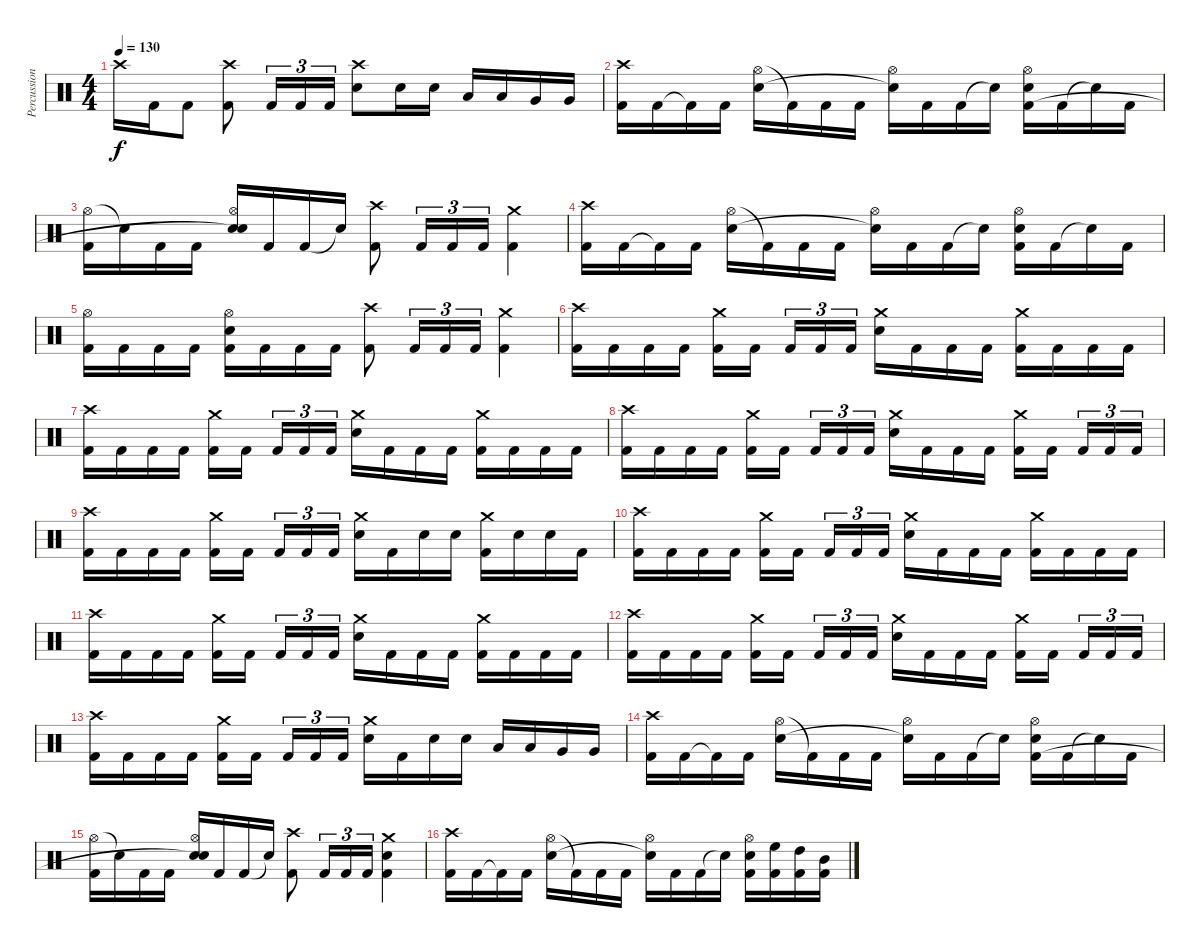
\track ("Percussion" "Percussion") {instrument percussion}
\staff {score}
\articulation defaults
\ts (4 4)
\tempo 130
\clef neutral
\ks c "Crash high (hit)".16{dy f} "Kick (hit) 2".16 "Kick (hit) 2".8
("Crash high (hit)" "Kick (hit) 2").8 "Kick (hit) 2".16{tu (3 2)} "Kick (hit) 2".16{tu (3 2)} "Kick (hit) 2".16{tu (3 2)} ("Crash high (hit)" "Electric Snare (hit)").8 "Electric Snare (hit)".16 "Electric Snare (hit)".16 "Low Tom (hit)".16 "Low Tom (hit)".16 "Very Low Tom (hit)".16 "Very Low Tom (hit)".16 |
("Crash high (hit)" "Kick (hit) 2").16 "Kick (hit) 2".16 "Kick (hit) 2"{t}.16 "Kick (hit) 2".16 ("Hi-Hat (open)" "Electric Snare (hit)").16 "Kick (hit) 2"{t}.16 "Kick (hit) 2".16 "Kick (hit) 2".16 ("Hi-Hat (open)" "Snare (hit)"{t}).16 "Kick (hit) 2".16 "Kick (hit) 2".16 "Snare (hit)"{t}.16 ("Hi-Hat (open)" "Electric Snare (hit)" "Kick (hit) 2").16 "Kick (hit) 2".16 "Snare (hit)"{t}.16 "Kick (hit) 2".16 |
("Hi-Hat (open)" "Kick (hit) 2").16 "Snare (hit)"{t}.16 "Kick (hit) 2".16 "Kick (hit) 2".16 ("Hi-Hat (open)" "Electric Snare (hit)" "Snare (hit)"{t}).16 "Kick (hit) 2".16 "Kick (hit) 2".16 "Snare (hit)"{t}.16 ("Crash high (hit)" "Kick (hit) 2").8 "Kick (hit) 2".16{tu (3 2)} "Kick (hit) 2".16{tu (3 2)} "Kick (hit) 2".16{tu (3 2)} ("Crash medium (hit)" "Kick (hit) 2").4 |
("Crash high (hit)" "Kick (hit) 2").16 "Kick (hit) 2".16 "Kick (hit) 2"{t}.16 "Kick (hit) 2".16 ("Hi-Hat (open)" "Electric Snare (hit)").16 "Kick (hit) 2"{t}.16 "Kick (hit) 2".16 "Kick (hit) 2".16 ("Hi-Hat (open)" "Snare (hit)"{t}).16 "Kick (hit) 2".16 "Kick (hit) 2".16 "Snare (hit)"{t}.16 ("Hi-Hat (open)" "Electric Snare (hit)" "Kick (hit) 2").16 "Kick (hit) 2".16 "Snare (hit)"{t}.16 "Kick (hit) 2".16 |
("Hi-Hat (open)" "Kick (hit) 2").16 "Kick (hit) 2".16 "Kick (hit) 2".16 "Kick (hit) 2".16 ("Hi-Hat (open)" "Electric Snare (hit)" "Kick (hit) 2").16 "Kick (hit) 2".16 "Kick (hit) 2".16 "Kick (hit) 2".16 ("Crash high (hit)" "Kick (hit) 2").8 "Kick (hit) 2".16{tu (3 2)} "Kick (hit) 2".16{tu (3 2)} "Kick (hit) 2".16{tu (3 2)} ("Crash medium (hit)" "Kick (hit) 2").4 |
("Crash high (hit)" "Kick (hit) 2").16 "Kick (hit) 2".16 "Kick (hit) 2".16 "Kick (hit) 2".16 ("Crash medium (hit)" "Kick (hit) 2").16 "Kick (hit) 2".16{beam splitsecondary} "Kick (hit) 2".16{tu (3 2)} "Kick (hit) 2".16{tu (3 2)} "Kick (hit) 2".16{tu (3 2)} ("Crash medium (hit)" "Electric Snare (hit)").16 "Kick (hit) 2".16 "Kick (hit) 2".16 "Kick (hit) 2".16 ("Crash medium (hit)" "Kick (hit) 2").16 "Kick (hit) 2".16 "Kick (hit) 2".16 "Kick (hit) 2".16 |
("Crash high (hit)" "Kick (hit) 2").16 "Kick (hit) 2".16 "Kick (hit) 2".16 "Kick (hit) 2".16 ("Crash medium (hit)" "Kick (hit) 2").16 "Kick (hit) 2".16{beam splitsecondary} "Kick (hit) 2".16{tu (3 2)} "Kick (hit) 2".16{tu (3 2)} "Kick (hit) 2".16{tu (3 2)} ("Crash medium (hit)" "Electric Snare (hit)").16 "Kick (hit) 2".16 "Kick (hit) 2".16 "Kick (hit) 2".16 ("Crash medium (hit)" "Kick (hit) 2").16 "Kick (hit) 2".16 "Kick (hit) 2".16 "Kick (hit) 2".16 |
("Crash high (hit)" "Kick (hit) 2").16 "Kick (hit) 2".16 "Kick (hit) 2".16 "Kick (hit) 2".16 ("Crash medium (hit)" "Kick (hit) 2").16 "Kick (hit) 2".16{beam splitsecondary} "Kick (hit) 2".16{tu (3 2)} "Kick (hit) 2".16{tu (3 2)} "Kick (hit) 2".16{tu (3 2)} ("Crash medium (hit)" "Electric Snare (hit)").16 "Kick (hit) 2".16 "Kick (hit) 2".16 "Kick (hit) 2".16 ("Crash medium (hit)" "Kick (hit) 2").16 "Kick (hit) 2".16{beam splitsecondary} "Kick (hit) 2".16{tu (3 2)} "Kick (hit) 2".16{tu (3 2)} "Kick (hit) 2".16{tu (3 2)} |
("Crash high (hit)" "Kick (hit) 2").16 "Kick (hit) 2".16 "Kick (hit) 2".16 "Kick (hit) 2".16 ("Crash medium (hit)" "Kick (hit) 2").16 "Kick (hit) 2".16{beam splitsecondary} "Kick (hit) 2".16{tu (3 2)} "Kick (hit) 2".16{tu (3 2)} "Kick (hit) 2".16{tu (3 2)} ("Crash medium (hit)" "Electric Snare (hit)").16 "Kick (hit) 2".16 "Electric Snare (hit)".16 "Electric Snare (hit)".16 ("Crash medium (hit)" "Kick (hit) 2").16 "Electric Snare (hit)".16 "Electric Snare (hit)".16 "Kick (hit) 2".16 |
("Crash high (hit)" "Kick (hit) 2").16 "Kick (hit) 2".16 "Kick (hit) 2".16 "Kick (hit) 2".16 ("Crash medium (hit)" "Kick (hit) 2").16 "Kick (hit) 2".16{beam splitsecondary} "Kick (hit) 2".16{tu (3 2)} "Kick (hit) 2".16{tu (3 2)} "Kick (hit) 2".16{tu (3 2)} ("Crash medium (hit)" "Electric Snare (hit)").16 "Kick (hit) 2".16 "Kick (hit) 2".16 "Kick (hit) 2".16 ("Crash medium (hit)" "Kick (hit) 2").16 "Kick (hit) 2".16 "Kick (hit) 2".16 "Kick (hit) 2".16 |
("Crash high (hit)" "Kick (hit) 2").16 "Kick (hit) 2".16 "Kick (hit) 2".16 "Kick (hit) 2".16 ("Crash medium (hit)" "Kick (hit) 2").16 "Kick (hit) 2".16{beam splitsecondary} "Kick (hit) 2".16{tu (3 2)} "Kick (hit) 2".16{tu (3 2)} "Kick (hit) 2".16{tu (3 2)} ("Crash medium (hit)" "Electric Snare (hit)").16 "Kick (hit) 2".16 "Kick (hit) 2".16 "Kick (hit) 2".16 ("Crash medium (hit)" "Kick (hit) 2").16 "Kick (hit) 2".16 "Kick (hit) 2".16 "Kick (hit) 2".16 |
("Crash high (hit)" "Kick (hit) 2").16 "Kick (hit) 2".16 "Kick (hit) 2".16 "Kick (hit) 2".16 ("Crash medium (hit)" "Kick (hit) 2").16 "Kick (hit) 2".16{beam splitsecondary} "Kick (hit) 2".16{tu (3 2)} "Kick (hit) 2".16{tu (3 2)} "Kick (hit) 2".16{tu (3 2)} ("Crash medium (hit)" "Electric Snare (hit)").16 "Kick (hit) 2".16 "Kick (hit) 2".16 "Kick (hit) 2".16 ("Crash medium (hit)" "Kick (hit) 2").16 "Kick (hit) 2".16{beam splitsecondary} "Kick (hit) 2".16{tu (3 2)} "Kick (hit) 2".16{tu (3 2)} "Kick (hit) 2".16{tu (3 2)} |
("Crash high (hit)" "Kick (hit) 2").16 "Kick (hit) 2".16 "Kick (hit) 2".16 "Kick (hit) 2".16 ("Crash medium (hit)" "Kick (hit) 2").16 "Kick (hit) 2".16{beam splitsecondary} "Kick (hit) 2".16{tu (3 2)} "Kick (hit) 2".16{tu (3 2)} "Kick (hit) 2".16{tu (3 2)} ("Crash medium (hit)" "Electric Snare (hit)").16 "Kick (hit) 2".16 "Electric Snare (hit)".16 "Electric Snare (hit)".16 "Low Tom (hit)".16 "Low Tom (hit)".16 "Very Low Tom (hit)".16 "Very Low Tom (hit)".16 |
("Crash high (hit)" "Kick (hit) 2").16 "Kick (hit) 2".16 "Kick (hit) 2"{t}.16 "Kick (hit) 2".16 ("Hi-Hat (open)" "Electric Snare (hit)").16 "Kick (hit) 2"{t}.16 "Kick (hit) 2".16 "Kick (hit) 2".16 ("Hi-Hat (open)" "Snare (hit)"{t}).16 "Kick (hit) 2".16 "Kick (hit) 2".16 "Snare (hit)"{t}.16 ("Hi-Hat (open)" "Electric Snare (hit)" "Kick (hit) 2").16 "Kick (hit) 2".16 "Snare (hit)"{t}.16 "Kick (hit) 2".16 |
("Hi-Hat (open)" "Kick (hit) 2").16 "Snare (hit)"{t}.16 "Kick (hit) 2".16 "Kick (hit) 2".16 ("Hi-Hat (open)" "Electric Snare (hit)" "Snare (hit)"{t}).16 "Kick (hit) 2".16 "Kick (hit) 2".16 "Snare (hit)"{t}.16 ("Crash high (hit)" "Kick (hit) 2").8 "Kick (hit) 2".16{tu (3 2)} "Kick (hit) 2".16{tu (3 2)} "Kick (hit) 2".16{tu (3 2)} ("Crash medium (hit)" "Electric Snare (hit)" "Kick (hit) 2").4 |
("Crash high (hit)" "Kick (hit) 2").16 "Kick (hit) 2".16 "Kick (hit) 2"{t}.16 "Kick (hit) 2".16 ("Hi-Hat (open)" "Electric Snare (hit)").16 "Kick (hit) 2"{t}.16 "Kick (hit) 2".16 "Kick (hit) 2".16 ("Hi-Hat (open)" "Snare (hit)"{t}).16 "Kick (hit) 2".16 "Kick (hit) 2".16 "Snare (hit)"{t}.16 ("Hi-Hat (open)" "Electric Snare (hit)" "Kick (hit) 2").16 ("High Floor Tom (hit)" "Kick (hit) 2").16 ("High Tom (hit)" "Kick (hit) 2").16 ("Mid Tom (hit)" "Kick (hit) 2").16
